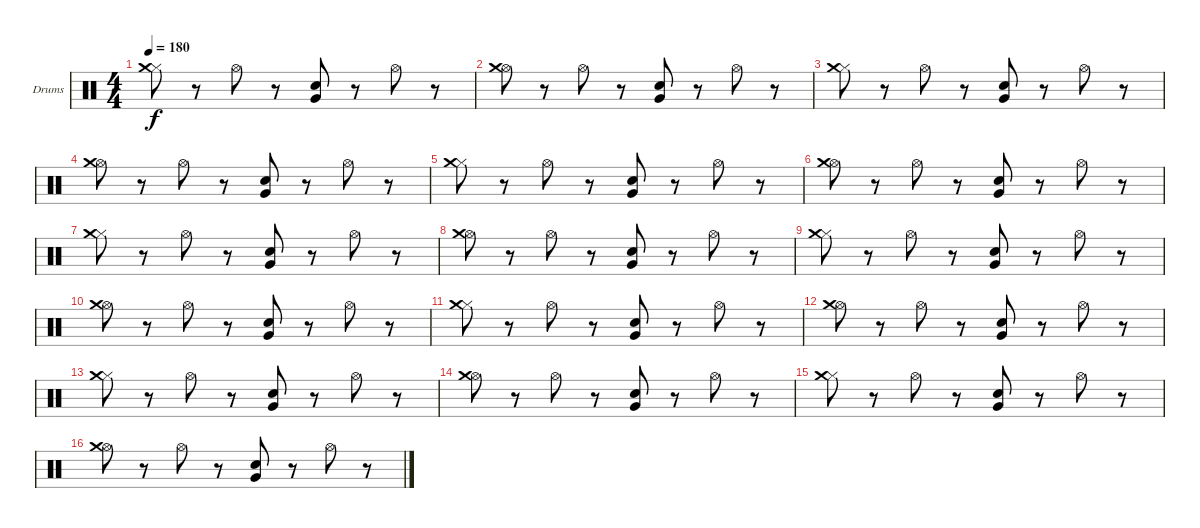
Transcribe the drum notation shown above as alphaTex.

\bracketExtendMode groupsimilarinstruments
\firstSystemTrackNameOrientation horizontal
\otherSystemsTrackNameOrientation horizontal
\track ("Drumkit" "Drums") {instrument percussion}
\staff {score}
\articulation defaults
\ts (4 4)
\tempo 180
\clef neutral
\ks c
("Hi-Hat (closed)" "Crash medium (hit)").8{dy f} r.8 "Hi-Hat (open)".8 r.8 ("Snare (hit) 2" "Very Low Tom (hit)").8 r.8 "Hi-Hat (open)".8 r.8 |
("Hi-Hat (open)" "Crash medium (hit)").8 r.8 "Hi-Hat (open)".8 r.8 ("Snare (hit) 2" "Very Low Tom (hit)").8 r.8 "Hi-Hat (open)".8 r.8 |
("Hi-Hat (closed)" "Crash medium (hit)").8 r.8 "Hi-Hat (open)".8 r.8 ("Snare (hit) 2" "Very Low Tom (hit)").8 r.8 "Hi-Hat (open)".8 r.8 |
("Hi-Hat (open)" "Crash medium (hit)").8 r.8 "Hi-Hat (open)".8 r.8 ("Snare (hit) 2" "Very Low Tom (hit)").8 r.8 "Hi-Hat (open)".8 r.8 |
("Hi-Hat (closed)" "Crash medium (hit)").8 r.8 "Hi-Hat (open)".8 r.8 ("Snare (hit) 2" "Very Low Tom (hit)").8 r.8 "Hi-Hat (open)".8 r.8 |
("Hi-Hat (open)" "Crash medium (hit)").8 r.8 "Hi-Hat (open)".8 r.8 ("Snare (hit) 2" "Very Low Tom (hit)").8 r.8 "Hi-Hat (open)".8 r.8 |
("Hi-Hat (closed)" "Crash medium (hit)").8 r.8 "Hi-Hat (open)".8 r.8 ("Snare (hit) 2" "Very Low Tom (hit)").8 r.8 "Hi-Hat (open)".8 r.8 |
("Hi-Hat (open)" "Crash medium (hit)").8 r.8 "Hi-Hat (open)".8 r.8 ("Snare (hit) 2" "Very Low Tom (hit)").8 r.8 "Hi-Hat (open)".8 r.8 |
("Hi-Hat (closed)" "Crash medium (hit)").8 r.8 "Hi-Hat (open)".8 r.8 ("Snare (hit) 2" "Very Low Tom (hit)").8 r.8 "Hi-Hat (open)".8 r.8 |
("Hi-Hat (open)" "Crash medium (hit)").8 r.8 "Hi-Hat (open)".8 r.8 ("Snare (hit) 2" "Very Low Tom (hit)").8 r.8 "Hi-Hat (open)".8 r.8 |
("Hi-Hat (closed)" "Crash medium (hit)").8 r.8 "Hi-Hat (open)".8 r.8 ("Snare (hit) 2" "Very Low Tom (hit)").8 r.8 "Hi-Hat (open)".8 r.8 |
("Hi-Hat (open)" "Crash medium (hit)").8 r.8 "Hi-Hat (open)".8 r.8 ("Snare (hit) 2" "Very Low Tom (hit)").8 r.8 "Hi-Hat (open)".8 r.8 |
("Hi-Hat (closed)" "Crash medium (hit)").8 r.8 "Hi-Hat (open)".8 r.8 ("Snare (hit) 2" "Very Low Tom (hit)").8 r.8 "Hi-Hat (open)".8 r.8 |
("Hi-Hat (open)" "Crash medium (hit)").8 r.8 "Hi-Hat (open)".8 r.8 ("Snare (hit) 2" "Very Low Tom (hit)").8 r.8 "Hi-Hat (open)".8 r.8 |
("Hi-Hat (closed)" "Crash medium (hit)").8 r.8 "Hi-Hat (open)".8 r.8 ("Snare (hit) 2" "Very Low Tom (hit)").8 r.8 "Hi-Hat (open)".8 r.8 |
("Hi-Hat (open)" "Crash medium (hit)").8 r.8 "Hi-Hat (open)".8 r.8 ("Snare (hit) 2" "Very Low Tom (hit)").8 r.8 "Hi-Hat (open)".8 r.8
